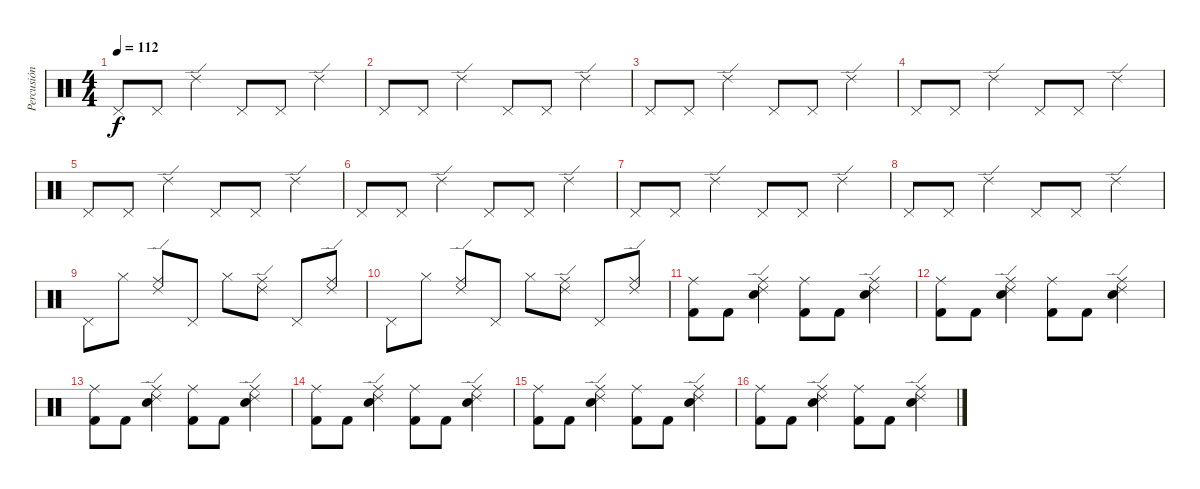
\track ("Percusión" "Percusión") {instrument percussion}
\staff {score}
\articulation defaults
\ts (4 4)
\tempo 112
\clef neutral
\ks c "Pedal Hi-Hat (hit)".8{dy f} "Pedal Hi-Hat (hit)".8 "Ride (edge) 2".4 "Pedal Hi-Hat (hit)".8 "Pedal Hi-Hat (hit)".8 "Ride (edge) 2".4
|
"Pedal Hi-Hat (hit)".8 "Pedal Hi-Hat (hit)".8 "Ride (edge) 2".4 "Pedal Hi-Hat (hit)".8 "Pedal Hi-Hat (hit)".8 "Ride (edge) 2".4 |
"Pedal Hi-Hat (hit)".8 "Pedal Hi-Hat (hit)".8 "Ride (edge) 2".4 "Pedal Hi-Hat (hit)".8 "Pedal Hi-Hat (hit)".8 "Ride (edge) 2".4 |
"Pedal Hi-Hat (hit)".8 "Pedal Hi-Hat (hit)".8 "Ride (edge) 2".4 "Pedal Hi-Hat (hit)".8 "Pedal Hi-Hat (hit)".8 "Ride (edge) 2".4 |
"Pedal Hi-Hat (hit)".8 "Pedal Hi-Hat (hit)".8 "Ride (edge) 2".4 "Pedal Hi-Hat (hit)".8 "Pedal Hi-Hat (hit)".8 "Ride (edge) 2".4 |
"Pedal Hi-Hat (hit)".8 "Pedal Hi-Hat (hit)".8 "Ride (edge) 2".4 "Pedal Hi-Hat (hit)".8 "Pedal Hi-Hat (hit)".8 "Ride (edge) 2".4 |
"Pedal Hi-Hat (hit)".8 "Pedal Hi-Hat (hit)".8 "Ride (edge) 2".4 "Pedal Hi-Hat (hit)".8 "Pedal Hi-Hat (hit)".8 "Ride (edge) 2".4 |
"Pedal Hi-Hat (hit)".8 "Pedal Hi-Hat (hit)".8 "Ride (edge) 2".4 "Pedal Hi-Hat (hit)".8 "Pedal Hi-Hat (hit)".8 "Ride (edge) 2".4 |
"Pedal Hi-Hat (hit)".8 "Hi-Hat (closed)".8 ("Ride (edge) 2" "Ride (middle)").8 "Pedal Hi-Hat (hit)".8 "Hi-Hat (closed)".8 ("Ride (edge) 2" "Ride (middle)").8 "Pedal Hi-Hat (hit)".8 ("Ride (edge) 2" "Ride (middle)").8 |
"Pedal Hi-Hat (hit)".8 "Hi-Hat (closed)".8 ("Ride (edge) 2" "Ride (middle)").8 "Pedal Hi-Hat (hit)".8 "Hi-Hat (closed)".8 ("Ride (edge) 2" "Ride (middle)").8 "Pedal Hi-Hat (hit)".8 ("Ride (edge) 2" "Ride (middle)").8 |
("Ride (middle)" "Kick (hit) 2").8 "Kick (hit) 2".8 ("Ride (edge) 2" "Ride (middle)" "Snare (hit) 2").4 ("Ride (middle)" "Kick (hit) 2").8 "Kick (hit) 2".8 ("Ride (edge) 2" "Ride (middle)" "Snare (hit) 2").4 |
("Ride (middle)" "Kick (hit) 2").8 "Kick (hit) 2".8 ("Ride (edge) 2" "Ride (middle)" "Snare (hit) 2").4 ("Ride (middle)" "Kick (hit) 2").8 "Kick (hit) 2".8 ("Ride (edge) 2" "Ride (middle)" "Snare (hit) 2").4 |
("Ride (middle)" "Kick (hit) 2").8 "Kick (hit) 2".8 ("Ride (edge) 2" "Ride (middle)" "Snare (hit) 2").4 ("Ride (middle)" "Kick (hit) 2").8 "Kick (hit) 2".8 ("Ride (edge) 2" "Ride (middle)" "Snare (hit) 2").4 |
("Ride (middle)" "Kick (hit) 2").8 "Kick (hit) 2".8 ("Ride (edge) 2" "Ride (middle)" "Snare (hit) 2").4 ("Ride (middle)" "Kick (hit) 2").8 "Kick (hit) 2".8 ("Ride (edge) 2" "Ride (middle)" "Snare (hit) 2").4 |
("Ride (middle)" "Kick (hit) 2").8 "Kick (hit) 2".8 ("Ride (edge) 2" "Ride (middle)" "Snare (hit) 2").4 ("Ride (middle)" "Kick (hit) 2").8 "Kick (hit) 2".8 ("Ride (edge) 2" "Ride (middle)" "Snare (hit) 2").4 |
("Ride (middle)" "Kick (hit) 2").8 "Kick (hit) 2".8 ("Ride (edge) 2" "Ride (middle)" "Snare (hit) 2").4 ("Ride (middle)" "Kick (hit) 2").8 "Kick (hit) 2".8 ("Ride (edge) 2" "Ride (middle)" "Snare (hit) 2").4
